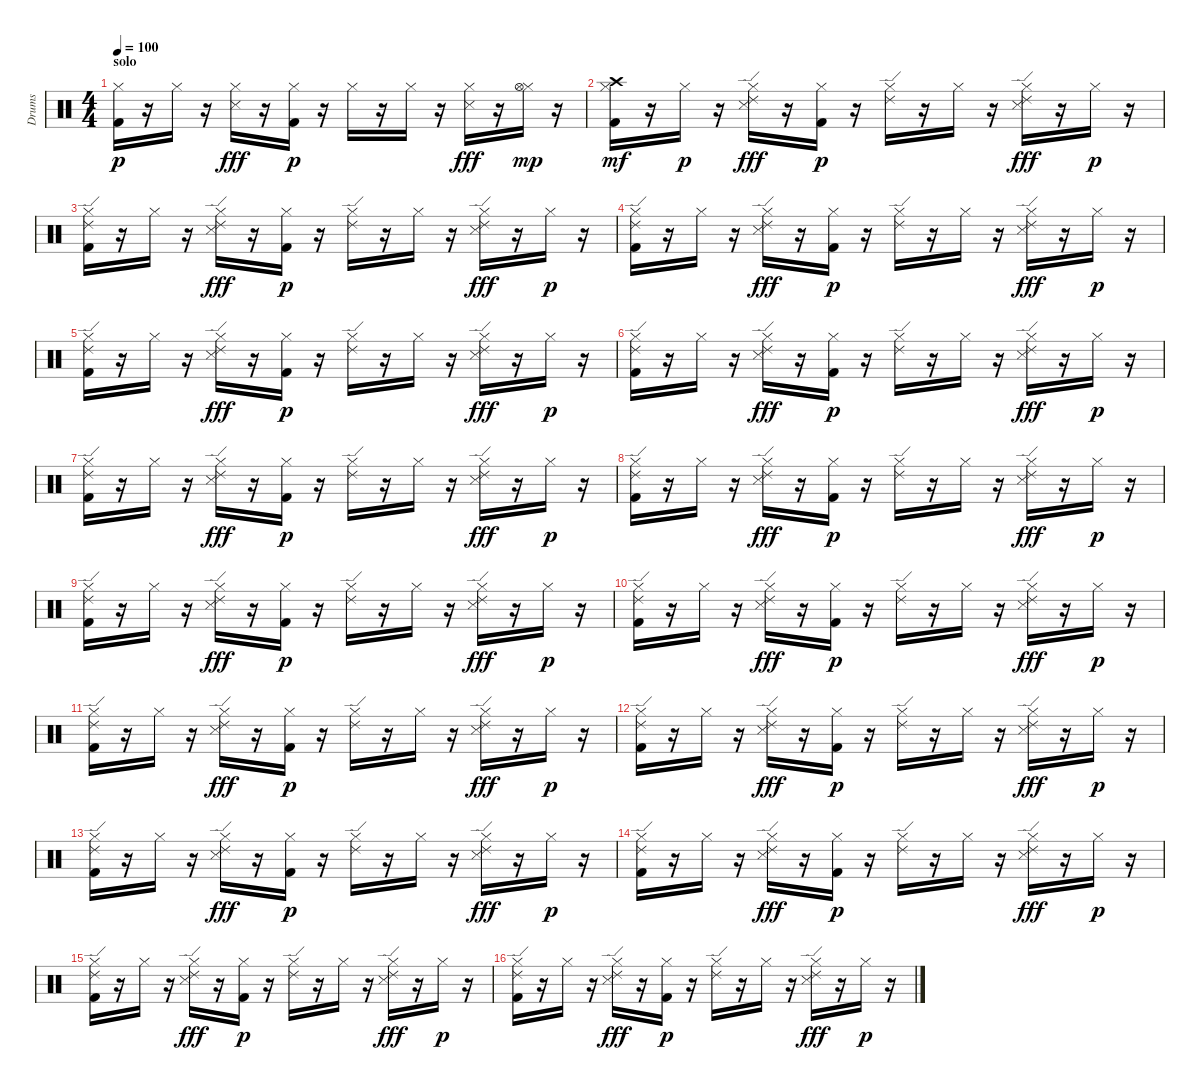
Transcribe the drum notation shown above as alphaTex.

\track ("Drums" "Drums") {instrument percussion}
\staff {score}
\articulation defaults
\ts (4 4)
\section ("" "solo")
\tempo 100
\clef neutral
\ks c
("Hi-Hat (closed)" "Kick (hit) 2").16{dy p} r.16 "Hi-Hat (closed)".16 r.16 ("Hi-Hat (closed)" "Snare (side stick) 3").16{dy fff} r.16 ("Hi-Hat (closed)" "Kick (hit) 2").16{dy p} r.16 "Hi-Hat (closed)".16 r.16 "Hi-Hat (closed)".16 r.16 ("Hi-Hat (closed)" "Snare (side stick) 3").16{dy fff} r.16 ("Hi-Hat (closed)" "Hi-Hat (open)").16{dy mp} r.16 |
("Hi-Hat (closed)" "Crash high (hit)" "Kick (hit) 2").16{dy mf} r.16 "Hi-Hat (closed)".16{dy p} r.16 ("Hi-Hat (closed)" "Ride (edge) 2" "Snare (side stick) 3").16{dy fff} r.16 ("Hi-Hat (closed)" "Kick (hit) 2").16{dy p} r.16 ("Hi-Hat (closed)" "Ride (edge) 2").16 r.16 "Hi-Hat (closed)".16 r.16 ("Hi-Hat (closed)" "Ride (edge) 2" "Snare (side stick) 3").16{dy fff} r.16 "Hi-Hat (closed)".16{dy p} r.16 |
("Hi-Hat (closed)" "Ride (edge) 2" "Kick (hit) 2").16 r.16 "Hi-Hat (closed)".16 r.16 ("Hi-Hat (closed)" "Ride (edge) 2" "Snare (side stick) 3").16{dy fff} r.16 ("Hi-Hat (closed)" "Kick (hit) 2").16{dy p} r.16 ("Hi-Hat (closed)" "Ride (edge) 2").16 r.16 "Hi-Hat (closed)".16 r.16 ("Hi-Hat (closed)" "Ride (edge) 2" "Snare (side stick) 3").16{dy fff} r.16 "Hi-Hat (closed)".16{dy p} r.16 |
("Hi-Hat (closed)" "Ride (edge) 2" "Kick (hit) 2").16 r.16 "Hi-Hat (closed)".16 r.16 ("Hi-Hat (closed)" "Ride (edge) 2" "Snare (side stick) 3").16{dy fff} r.16 ("Hi-Hat (closed)" "Kick (hit) 2").16{dy p} r.16 ("Hi-Hat (closed)" "Ride (edge) 2").16 r.16 "Hi-Hat (closed)".16 r.16 ("Hi-Hat (closed)" "Ride (edge) 2" "Snare (side stick) 3").16{dy fff} r.16 "Hi-Hat (closed)".16{dy p} r.16 |
("Hi-Hat (closed)" "Ride (edge) 2" "Kick (hit) 2").16 r.16 "Hi-Hat (closed)".16 r.16 ("Hi-Hat (closed)" "Ride (edge) 2" "Snare (side stick) 3").16{dy fff} r.16 ("Hi-Hat (closed)" "Kick (hit) 2").16{dy p} r.16 ("Hi-Hat (closed)" "Ride (edge) 2").16 r.16 "Hi-Hat (closed)".16 r.16 ("Hi-Hat (closed)" "Ride (edge) 2" "Snare (side stick) 3").16{dy fff} r.16 "Hi-Hat (closed)".16{dy p} r.16 |
("Hi-Hat (closed)" "Ride (edge) 2" "Kick (hit) 2").16 r.16 "Hi-Hat (closed)".16 r.16 ("Hi-Hat (closed)" "Ride (edge) 2" "Snare (side stick) 3").16{dy fff} r.16 ("Hi-Hat (closed)" "Kick (hit) 2").16{dy p} r.16 ("Hi-Hat (closed)" "Ride (edge) 2").16 r.16 "Hi-Hat (closed)".16 r.16 ("Hi-Hat (closed)" "Ride (edge) 2" "Snare (side stick) 3").16{dy fff} r.16 "Hi-Hat (closed)".16{dy p} r.16 |
("Hi-Hat (closed)" "Ride (edge) 2" "Kick (hit) 2").16 r.16 "Hi-Hat (closed)".16 r.16 ("Hi-Hat (closed)" "Ride (edge) 2" "Snare (side stick) 3").16{dy fff} r.16 ("Hi-Hat (closed)" "Kick (hit) 2").16{dy p} r.16 ("Hi-Hat (closed)" "Ride (edge) 2").16 r.16 "Hi-Hat (closed)".16 r.16 ("Hi-Hat (closed)" "Ride (edge) 2" "Snare (side stick) 3").16{dy fff} r.16 "Hi-Hat (closed)".16{dy p} r.16 |
("Hi-Hat (closed)" "Ride (edge) 2" "Kick (hit) 2").16 r.16 "Hi-Hat (closed)".16 r.16 ("Hi-Hat (closed)" "Ride (edge) 2" "Snare (side stick) 3").16{dy fff} r.16 ("Hi-Hat (closed)" "Kick (hit) 2").16{dy p} r.16 ("Hi-Hat (closed)" "Ride (edge) 2").16 r.16 "Hi-Hat (closed)".16 r.16 ("Hi-Hat (closed)" "Ride (edge) 2" "Snare (side stick) 3").16{dy fff} r.16 "Hi-Hat (closed)".16{dy p} r.16 |
("Hi-Hat (closed)" "Ride (edge) 2" "Kick (hit) 2").16 r.16 "Hi-Hat (closed)".16 r.16 ("Hi-Hat (closed)" "Ride (edge) 2" "Snare (side stick) 3").16{dy fff} r.16 ("Hi-Hat (closed)" "Kick (hit) 2").16{dy p} r.16 ("Hi-Hat (closed)" "Ride (edge) 2").16 r.16 "Hi-Hat (closed)".16 r.16 ("Hi-Hat (closed)" "Ride (edge) 2" "Snare (side stick) 3").16{dy fff} r.16 "Hi-Hat (closed)".16{dy p} r.16 |
("Hi-Hat (closed)" "Ride (edge) 2" "Kick (hit) 2").16 r.16 "Hi-Hat (closed)".16 r.16 ("Hi-Hat (closed)" "Ride (edge) 2" "Snare (side stick) 3").16{dy fff} r.16 ("Hi-Hat (closed)" "Kick (hit) 2").16{dy p} r.16 ("Hi-Hat (closed)" "Ride (edge) 2").16 r.16 "Hi-Hat (closed)".16 r.16 ("Hi-Hat (closed)" "Ride (edge) 2" "Snare (side stick) 3").16{dy fff} r.16 "Hi-Hat (closed)".16{dy p} r.16 |
("Hi-Hat (closed)" "Ride (edge) 2" "Kick (hit) 2").16 r.16 "Hi-Hat (closed)".16 r.16 ("Hi-Hat (closed)" "Ride (edge) 2" "Snare (side stick) 3").16{dy fff} r.16 ("Hi-Hat (closed)" "Kick (hit) 2").16{dy p} r.16 ("Hi-Hat (closed)" "Ride (edge) 2").16 r.16 "Hi-Hat (closed)".16 r.16 ("Hi-Hat (closed)" "Ride (edge) 2" "Snare (side stick) 3").16{dy fff} r.16 "Hi-Hat (closed)".16{dy p} r.16 |
("Hi-Hat (closed)" "Ride (edge) 2" "Kick (hit) 2").16 r.16 "Hi-Hat (closed)".16 r.16 ("Hi-Hat (closed)" "Ride (edge) 2" "Snare (side stick) 3").16{dy fff} r.16 ("Hi-Hat (closed)" "Kick (hit) 2").16{dy p} r.16 ("Hi-Hat (closed)" "Ride (edge) 2").16 r.16 "Hi-Hat (closed)".16 r.16 ("Hi-Hat (closed)" "Ride (edge) 2" "Snare (side stick) 3").16{dy fff} r.16 "Hi-Hat (closed)".16{dy p} r.16 |
("Hi-Hat (closed)" "Ride (edge) 2" "Kick (hit) 2").16 r.16 "Hi-Hat (closed)".16 r.16 ("Hi-Hat (closed)" "Ride (edge) 2" "Snare (side stick) 3").16{dy fff} r.16 ("Hi-Hat (closed)" "Kick (hit) 2").16{dy p} r.16 ("Hi-Hat (closed)" "Ride (edge) 2").16 r.16 "Hi-Hat (closed)".16 r.16 ("Hi-Hat (closed)" "Ride (edge) 2" "Snare (side stick) 3").16{dy fff} r.16 "Hi-Hat (closed)".16{dy p} r.16 |
("Hi-Hat (closed)" "Ride (edge) 2" "Kick (hit) 2").16 r.16 "Hi-Hat (closed)".16 r.16 ("Hi-Hat (closed)" "Ride (edge) 2" "Snare (side stick) 3").16{dy fff} r.16 ("Hi-Hat (closed)" "Kick (hit) 2").16{dy p} r.16 ("Hi-Hat (closed)" "Ride (edge) 2").16 r.16 "Hi-Hat (closed)".16 r.16 ("Hi-Hat (closed)" "Ride (edge) 2" "Snare (side stick) 3").16{dy fff} r.16 "Hi-Hat (closed)".16{dy p} r.16 |
("Hi-Hat (closed)" "Ride (edge) 2" "Kick (hit) 2").16 r.16 "Hi-Hat (closed)".16 r.16 ("Hi-Hat (closed)" "Ride (edge) 2" "Snare (side stick) 3").16{dy fff} r.16 ("Hi-Hat (closed)" "Kick (hit) 2").16{dy p} r.16 ("Hi-Hat (closed)" "Ride (edge) 2").16 r.16 "Hi-Hat (closed)".16 r.16 ("Hi-Hat (closed)" "Ride (edge) 2" "Snare (side stick) 3").16{dy fff} r.16 "Hi-Hat (closed)".16{dy p} r.16 |
("Hi-Hat (closed)" "Ride (edge) 2" "Kick (hit) 2").16 r.16 "Hi-Hat (closed)".16 r.16 ("Hi-Hat (closed)" "Ride (edge) 2" "Snare (side stick) 3").16{dy fff} r.16 ("Hi-Hat (closed)" "Kick (hit) 2").16{dy p} r.16 ("Hi-Hat (closed)" "Ride (edge) 2").16 r.16 "Hi-Hat (closed)".16 r.16 ("Hi-Hat (closed)" "Ride (edge) 2" "Snare (side stick) 3").16{dy fff} r.16 "Hi-Hat (closed)".16{dy p} r.16
